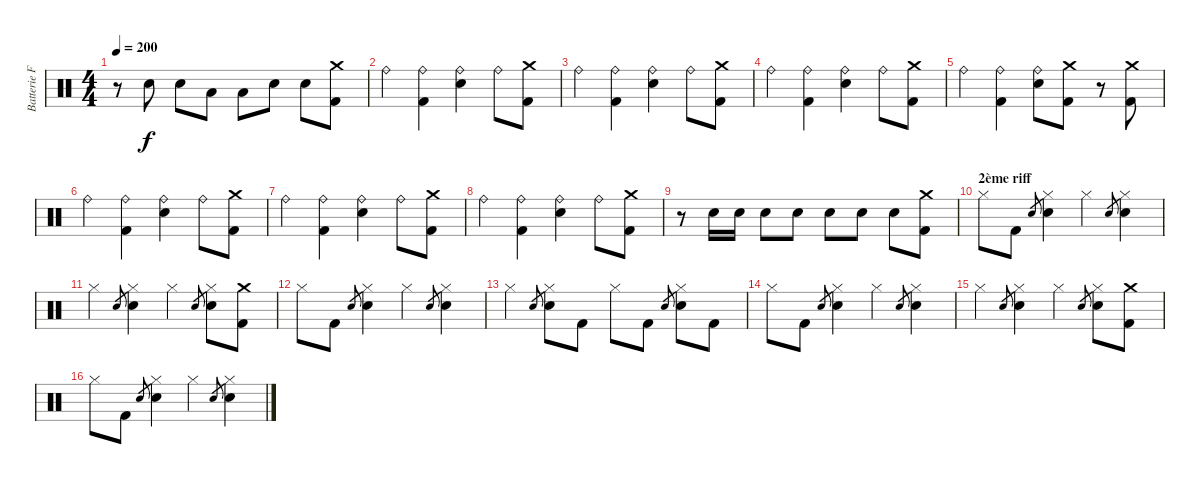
\track ("Batterie Franck" "Batterie F") {instrument percussion}
\staff {score}
\articulation defaults
\ts (4 4)
\tempo 200
\clef neutral
\ks c
r.8{dy f} "Snare (hit) 2".8 "Snare (hit) 2".8 "Low Floor Tom (hit)".8 "Low Floor Tom (hit)".8 "Snare (hit) 2".8 "Snare (hit) 2".8 ("Crash medium (hit)" "Kick (hit) 2").8 |
"Ride (bell)".4 ("Ride (bell)" "Kick (hit) 2").4 ("Ride (bell)" "Snare (hit) 2").4 "Ride (bell)".8 ("Crash medium (hit)" "Kick (hit) 2").8 |
"Ride (bell)".4 ("Ride (bell)" "Kick (hit) 2").4 ("Ride (bell)" "Snare (hit) 2").4 "Ride (bell)".8 ("Crash medium (hit)" "Kick (hit) 2").8 |
"Ride (bell)".4 ("Ride (bell)" "Kick (hit) 2").4 ("Ride (bell)" "Snare (hit) 2").4 "Ride (bell)".8 ("Crash medium (hit)" "Kick (hit) 2").8 |
"Ride (bell)".4 ("Ride (bell)" "Kick (hit) 2").4 ("Ride (bell)" "Snare (hit) 2").8 ("Crash medium (hit)" "Kick (hit) 2").8 r.8 ("Crash medium (hit)" "Kick (hit) 2").8 |
"Ride (bell)".4 ("Ride (bell)" "Kick (hit) 2").4 ("Ride (bell)" "Snare (hit) 2").4 "Ride (bell)".8 ("Crash medium (hit)" "Kick (hit) 2").8 |
"Ride (bell)".4 ("Ride (bell)" "Kick (hit) 2").4 ("Ride (bell)" "Snare (hit) 2").4 "Ride (bell)".8 ("Crash medium (hit)" "Kick (hit) 2").8 |
"Ride (bell)".4 ("Ride (bell)" "Kick (hit) 2").4 ("Ride (bell)" "Snare (hit) 2").4 "Ride (bell)".8 ("Crash medium (hit)" "Kick (hit) 2").8 |
r.8 "Snare (hit) 2".16 "Snare (hit) 2".16 "Snare (hit) 2".8 "Snare (hit) 2".8 "Snare (hit) 2".8 "Snare (hit) 2".8 "Snare (hit) 2".8 ("Crash medium (hit)" "Kick (hit) 2").8 |
\section ("" "2ème riff")
"Hi-Hat (closed)".8 "Kick (hit) 2".8 "Snare (hit) 2".8{gr} ("Hi-Hat (closed)" "Snare (hit) 2").4 "Hi-Hat (closed)".4 "Snare (hit) 2".8{gr} ("Hi-Hat (closed)" "Snare (hit) 2").4 |
"Hi-Hat (closed)".4 "Snare (hit) 2".8{gr} ("Hi-Hat (closed)" "Snare (hit) 2").4 "Hi-Hat (closed)".4 "Snare (hit) 2".8{gr} ("Hi-Hat (closed)" "Snare (hit) 2").8 ("Crash medium (hit)" "Kick (hit) 2").8 |
"Hi-Hat (closed)".8 "Kick (hit) 2".8 "Snare (hit) 2".8{gr} ("Hi-Hat (closed)" "Snare (hit) 2").4 "Hi-Hat (closed)".4 "Snare (hit) 2".8{gr} ("Hi-Hat (closed)" "Snare (hit) 2").4 |
"Hi-Hat (closed)".4 "Snare (hit) 2".8{gr} ("Hi-Hat (closed)" "Snare (hit) 2").8 "Kick (hit) 2".8 "Hi-Hat (closed)".8 "Kick (hit) 2".8 "Snare (hit) 2".8{gr} ("Hi-Hat (closed)" "Snare (hit) 2").8 "Kick (hit) 2".8 |
"Hi-Hat (closed)".8 "Kick (hit) 2".8 "Snare (hit) 2".8{gr} ("Hi-Hat (closed)" "Snare (hit) 2").4 "Hi-Hat (closed)".4 "Snare (hit) 2".8{gr} ("Hi-Hat (closed)" "Snare (hit) 2").4 |
"Hi-Hat (closed)".4 "Snare (hit) 2".8{gr} ("Hi-Hat (closed)" "Snare (hit) 2").4 "Hi-Hat (closed)".4 "Snare (hit) 2".8{gr} ("Hi-Hat (closed)" "Snare (hit) 2").8 ("Crash medium (hit)" "Kick (hit) 2").8 |
"Hi-Hat (closed)".8 "Kick (hit) 2".8 "Snare (hit) 2".8{gr} ("Hi-Hat (closed)" "Snare (hit) 2").4 "Hi-Hat (closed)".4 "Snare (hit) 2".8{gr} ("Hi-Hat (closed)" "Snare (hit) 2").4
